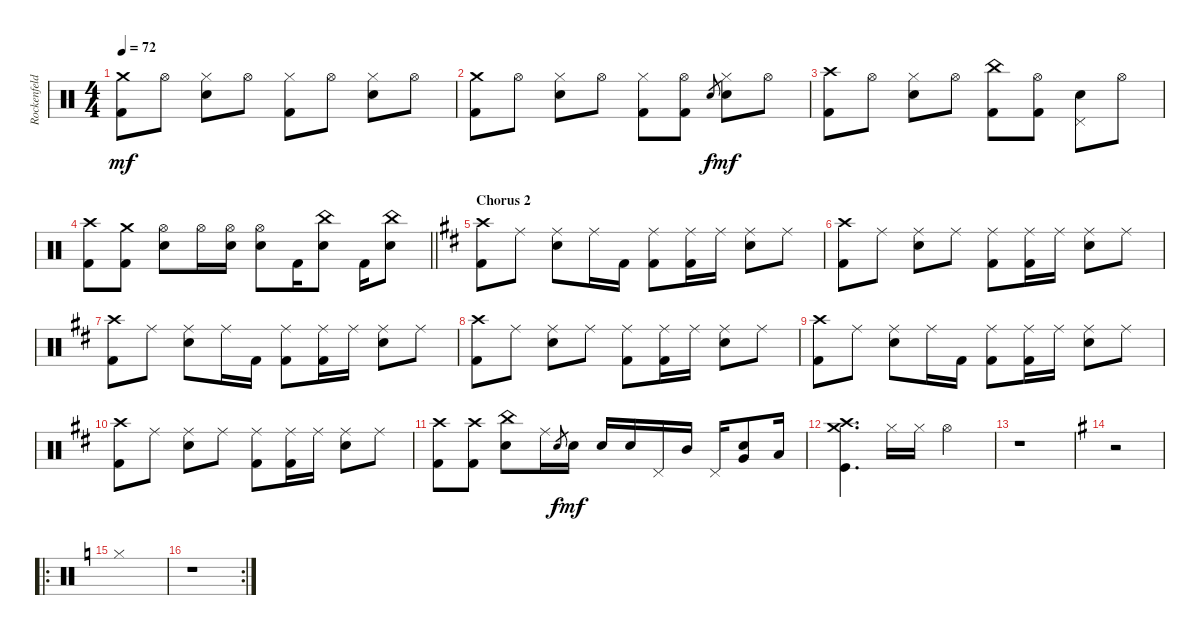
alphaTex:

\track ("Rockenfeld" "Rockenfeld") {instrument percussion}
\staff {score}
\articulation defaults
\ts (4 4)
\tempo 72
\clef neutral
\ks c
("Crash medium (hit)" "Kick (hit) 2").8{dy mf} "Hi-Hat (open)".8 ("Hi-Hat (closed)" "Electric Snare (hit)").8 "Hi-Hat (open)".8 ("Hi-Hat (closed)" "Kick (hit) 2").8 "Hi-Hat (open)".8 ("Hi-Hat (closed)" "Electric Snare (hit)").8 "Hi-Hat (open)".8 |
("Crash medium (hit)" "Kick (hit) 2").8 "Hi-Hat (open)".8 ("Hi-Hat (closed)" "Electric Snare (hit)").8 "Hi-Hat (open)".8 ("Hi-Hat (closed)" "Kick (hit) 2").8 ("Hi-Hat (open)" "Kick (hit) 2").8 "Electric Snare (hit)".8{gr dy f} ("Hi-Hat (closed)" "Electric Snare (hit)").8{dy mf} "Hi-Hat (open)".8 |
("Crash high (hit)" "Kick (hit) 2").8 "Hi-Hat (open)".8 ("Hi-Hat (closed)" "Electric Snare (hit)").8 "Hi-Hat (open)".8 ("China (hit)" "Kick (hit) 2").8 ("Hi-Hat (open)" "Kick (hit) 2").8 ("Electric Snare (hit)" "Pedal Hi-Hat (hit)").8 "Hi-Hat (open)".8 |
\barLineRight lightlight
("Crash high (hit)" "Kick (hit) 2").8 ("Crash medium (hit)" "Kick (hit) 2").8 ("Hi-Hat (open)" "Electric Snare (hit)").8 "Hi-Hat (open)".16 ("Hi-Hat (open)" "Electric Snare (hit)").16 ("Hi-Hat (open)" "Electric Snare (hit)").8 "Kick (hit) 2".16 ("China (hit)" "Electric Snare (hit)").8 "Kick (hit) 2".16 ("China (hit)" "Electric Snare (hit)").8 |
\section ("" "Chorus 2")
\ks d
("Crash high (hit)" "Kick (hit) 2").8 "Ride (middle)".8 ("Ride (middle)" "Electric Snare (hit)").8 "Ride (middle)".16 "Kick (hit) 2".16 ("Ride (middle)" "Kick (hit) 2").8 ("Ride (middle)" "Kick (hit) 2").16 "Ride (middle)".16 ("Ride (middle)" "Electric Snare (hit)").8 "Ride (middle)".8 |
("Crash high (hit)" "Kick (hit) 2").8 "Ride (middle)".8 ("Ride (middle)" "Electric Snare (hit)").8 "Ride (middle)".8 ("Ride (middle)" "Kick (hit) 2").8 ("Ride (middle)" "Kick (hit) 2").16 "Ride (middle)".16 ("Ride (middle)" "Electric Snare (hit)").8 "Ride (middle)".8 |
("Crash high (hit)" "Kick (hit) 2").8 "Ride (middle)".8 ("Ride (middle)" "Electric Snare (hit)").8 "Ride (middle)".16 "Kick (hit) 2".16 ("Ride (middle)" "Kick (hit) 2").8 ("Ride (middle)" "Kick (hit) 2").16 "Ride (middle)".16 ("Ride (middle)" "Electric Snare (hit)").8 "Ride (middle)".8 |
("Crash high (hit)" "Kick (hit) 2").8 "Ride (middle)".8 ("Ride (middle)" "Electric Snare (hit)").8 "Ride (middle)".8 ("Ride (middle)" "Kick (hit) 2").8 ("Ride (middle)" "Kick (hit) 2").16 "Ride (middle)".16 ("Ride (middle)" "Electric Snare (hit)").8 "Ride (middle)".8 |
("Crash high (hit)" "Kick (hit) 2").8 "Ride (middle)".8 ("Ride (middle)" "Electric Snare (hit)").8 "Ride (middle)".16 "Kick (hit) 2".16 ("Ride (middle)" "Kick (hit) 2").8 ("Ride (middle)" "Kick (hit) 2").16 "Ride (middle)".16 ("Ride (middle)" "Electric Snare (hit)").8 "Ride (middle)".8 |
("Crash high (hit)" "Kick (hit) 2").8 "Ride (middle)".8 ("Ride (middle)" "Electric Snare (hit)").8 "Ride (middle)".8 ("Ride (middle)" "Kick (hit) 2").8 ("Ride (middle)" "Kick (hit) 2").16 "Ride (middle)".16 ("Ride (middle)" "Electric Snare (hit)").8 "Ride (middle)".8 |
("Crash high (hit)" "Kick (hit) 2").8 ("Crash high (hit)" "Kick (hit) 2").8 ("China (hit)" "Electric Snare (hit)").8 "Ride (middle)".16 "Electric Snare (hit)".8{gr dy f} "Electric Snare (hit)".16{dy mf} "Electric Snare (hit)".16 "Electric Snare (hit)".16 "Pedal Hi-Hat (hit)".16 "Mid Tom (hit)".16 "Pedal Hi-Hat (hit)".16 ("Very Low Tom (hit)" "Electric Snare (hit)").8 "Low Tom (hit)".16 |
("Crash high (hit)" "Crash medium (hit)" "Kick (hit)").4{d} "Hi-Hat (closed)".16 "Hi-Hat (closed)".16 "Hi-Hat (open)".2 |
r.1 |
\ks g
r.2 |
\ro
\ks c "Hi-Hat (closed)".1
|
\rc 2
r.1
